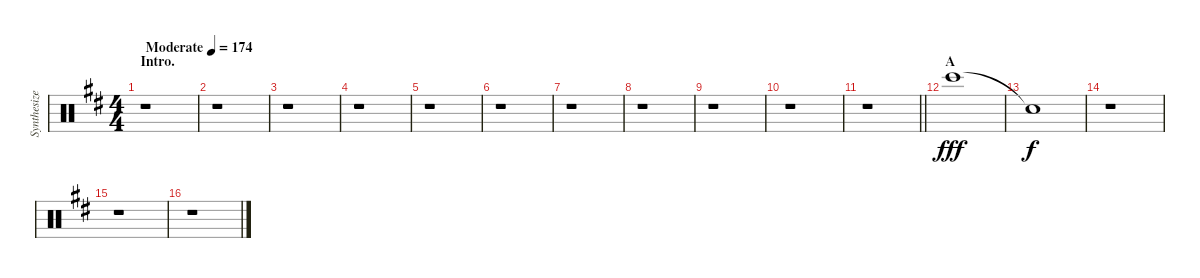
\track ("Synthesized Slap" "Synthesize") {instrument percussion}
\staff {score}
\articulation defaults
\ts (4 4)
\section ("" "Intro.")
\tempo (174 "Moderate")
\clef neutral
\ks bminor
r.1{dy fff} |
r.1 |
r.1 |
r.1 |
r.1 |
r.1 |
r.1 |
r.1 |
r.1 |
r.1 |
\barLineRight lightlight
r.1 |
\section ("" "A")
"Bongo High (hit)".1 |
"Snare (hit)"{t}.1{dy f} |
r.1 |
r.1 |
r.1
